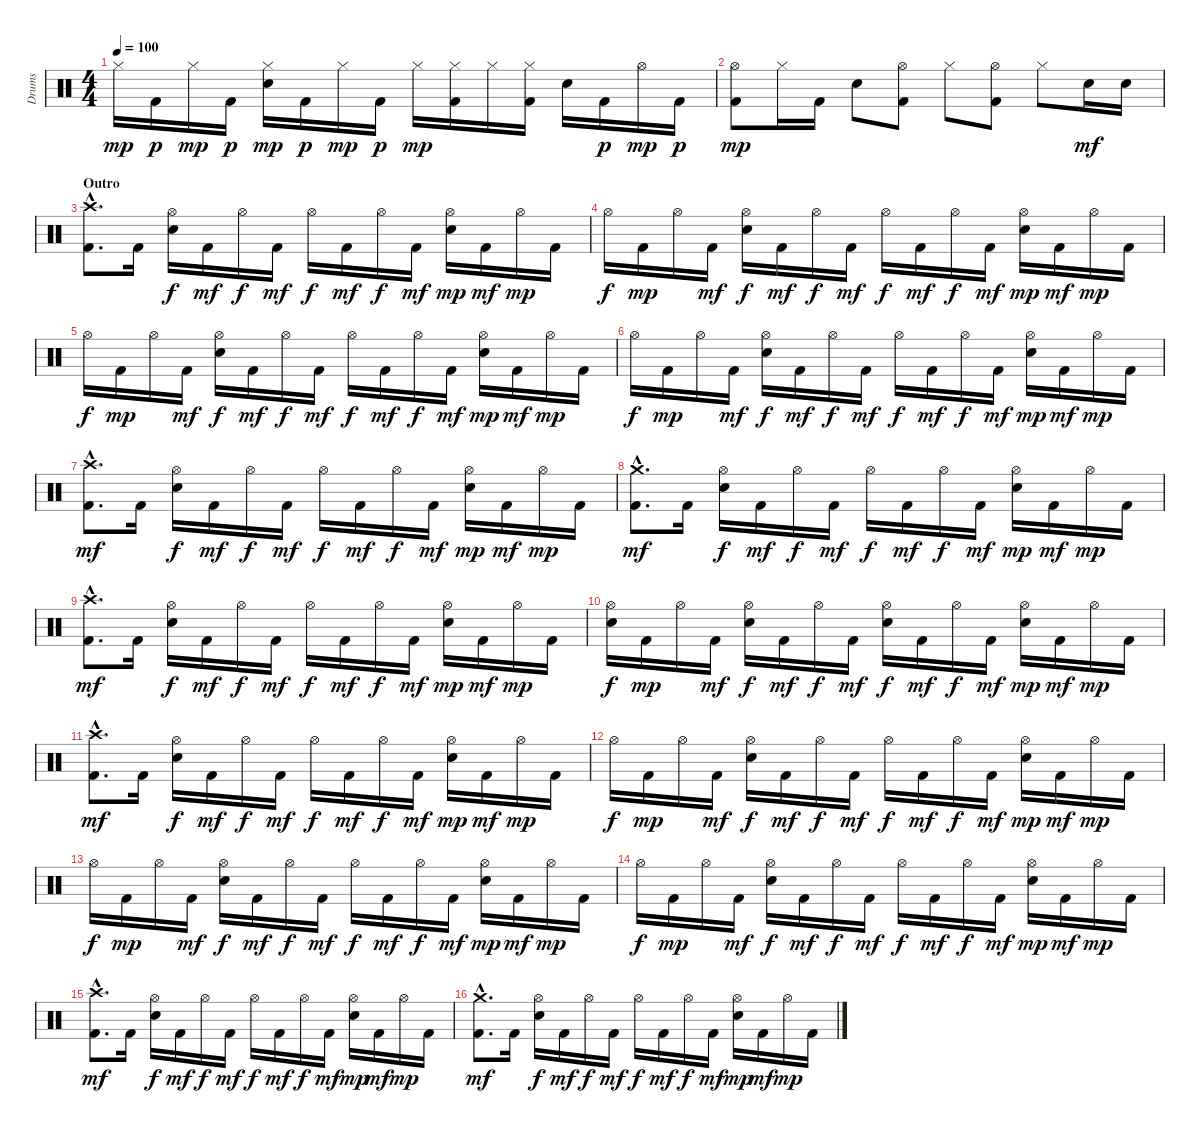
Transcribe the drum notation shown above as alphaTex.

\track ("Drums" "Drums") {instrument percussion}
\staff {score}
\articulation defaults
\ts (4 4)
\tempo 100
\clef neutral
\ks c "Hi-Hat (closed)".16{dy mp} "Kick (hit) 2".16{dy p} "Hi-Hat (closed)".16{dy mp} "Kick (hit) 2".16{dy p}
("Snare (hit) 2" "Hi-Hat (closed)").16{dy mp} "Kick (hit) 2".16{dy p} "Hi-Hat (closed)".16{dy mp} "Kick (hit) 2".16{dy p} "Hi-Hat (closed)".16{dy mp} ("Kick (hit) 2" "Hi-Hat (closed)").16 "Hi-Hat (closed)".16 ("Kick (hit) 2" "Hi-Hat (closed)").16 "Snare (hit) 2".16 "Kick (hit) 2".16{dy p} "Hi-Hat (open)".16{dy mp} "Kick (hit) 2".16{dy p} |
("Kick (hit) 2" "Hi-Hat (open)").8{dy mp} "Hi-Hat (closed)".16 "Kick (hit) 2".16 "Snare (hit) 2".8 ("Kick (hit) 2" "Hi-Hat (open)").8 "Hi-Hat (closed)".8 ("Kick (hit) 2" "Hi-Hat (open)").8 "Hi-Hat (closed)".8 "Snare (hit) 2".16{dy mf} "Snare (hit) 2".16 |
\section ("" "Outro")
("Kick (hit) 2"{hac} "Crash high (hit)"{hac}).8{d} "Kick (hit) 2".16 ("Snare (hit) 2" "Hi-Hat (open)").16{dy f} "Kick (hit) 2".16{dy mf} "Hi-Hat (open)".16{dy f} "Kick (hit) 2".16{dy mf} "Hi-Hat (open)".16{dy f} "Kick (hit) 2".16{dy mf} "Hi-Hat (open)".16{dy f} "Kick (hit) 2".16{dy mf} ("Snare (hit) 2" "Hi-Hat (open)").16{dy mp} "Kick (hit) 2".16{dy mf} "Hi-Hat (open)".16{dy mp} "Kick (hit) 2".16 |
"Hi-Hat (open)".16{dy f} "Kick (hit) 2".16{dy mp} "Hi-Hat (open)".16 "Kick (hit) 2".16{dy mf} ("Snare (hit) 2" "Hi-Hat (open)").16{dy f} "Kick (hit) 2".16{dy mf} "Hi-Hat (open)".16{dy f} "Kick (hit) 2".16{dy mf} "Hi-Hat (open)".16{dy f} "Kick (hit) 2".16{dy mf} "Hi-Hat (open)".16{dy f} "Kick (hit) 2".16{dy mf} ("Snare (hit) 2" "Hi-Hat (open)").16{dy mp} "Kick (hit) 2".16{dy mf} "Hi-Hat (open)".16{dy mp} "Kick (hit) 2".16 |
"Hi-Hat (open)".16{dy f} "Kick (hit) 2".16{dy mp} "Hi-Hat (open)".16 "Kick (hit) 2".16{dy mf} ("Snare (hit) 2" "Hi-Hat (open)").16{dy f} "Kick (hit) 2".16{dy mf} "Hi-Hat (open)".16{dy f} "Kick (hit) 2".16{dy mf} "Hi-Hat (open)".16{dy f} "Kick (hit) 2".16{dy mf} "Hi-Hat (open)".16{dy f} "Kick (hit) 2".16{dy mf} ("Snare (hit) 2" "Hi-Hat (open)").16{dy mp} "Kick (hit) 2".16{dy mf} "Hi-Hat (open)".16{dy mp} "Kick (hit) 2".16 |
"Hi-Hat (open)".16{dy f} "Kick (hit) 2".16{dy mp} "Hi-Hat (open)".16 "Kick (hit) 2".16{dy mf} ("Snare (hit) 2" "Hi-Hat (open)").16{dy f} "Kick (hit) 2".16{dy mf} "Hi-Hat (open)".16{dy f} "Kick (hit) 2".16{dy mf} "Hi-Hat (open)".16{dy f} "Kick (hit) 2".16{dy mf} "Hi-Hat (open)".16{dy f} "Kick (hit) 2".16{dy mf} ("Snare (hit) 2" "Hi-Hat (open)").16{dy mp} "Kick (hit) 2".16{dy mf} "Hi-Hat (open)".16{dy mp} "Kick (hit) 2".16 |
("Kick (hit) 2"{hac} "Crash high (hit)"{hac}).8{d dy mf} "Kick (hit) 2".16 ("Snare (hit) 2" "Hi-Hat (open)").16{dy f} "Kick (hit) 2".16{dy mf} "Hi-Hat (open)".16{dy f} "Kick (hit) 2".16{dy mf} "Hi-Hat (open)".16{dy f} "Kick (hit) 2".16{dy mf} "Hi-Hat (open)".16{dy f} "Kick (hit) 2".16{dy mf} ("Snare (hit) 2" "Hi-Hat (open)").16{dy mp} "Kick (hit) 2".16{dy mf} "Hi-Hat (open)".16{dy mp} "Kick (hit) 2".16 |
("Kick (hit) 2"{hac} "Crash medium (hit)"{hac}).8{d dy mf} "Kick (hit) 2".16 ("Snare (hit) 2" "Hi-Hat (open)").16{dy f} "Kick (hit) 2".16{dy mf} "Hi-Hat (open)".16{dy f} "Kick (hit) 2".16{dy mf} "Hi-Hat (open)".16{dy f} "Kick (hit) 2".16{dy mf} "Hi-Hat (open)".16{dy f} "Kick (hit) 2".16{dy mf} ("Snare (hit) 2" "Hi-Hat (open)").16{dy mp} "Kick (hit) 2".16{dy mf} "Hi-Hat (open)".16{dy mp} "Kick (hit) 2".16 |
("Kick (hit) 2"{hac} "Crash high (hit)"{hac}).8{d dy mf} "Kick (hit) 2".16 ("Snare (hit) 2" "Hi-Hat (open)").16{dy f} "Kick (hit) 2".16{dy mf} "Hi-Hat (open)".16{dy f} "Kick (hit) 2".16{dy mf} "Hi-Hat (open)".16{dy f} "Kick (hit) 2".16{dy mf} "Hi-Hat (open)".16{dy f} "Kick (hit) 2".16{dy mf} ("Snare (hit) 2" "Hi-Hat (open)").16{dy mp} "Kick (hit) 2".16{dy mf} "Hi-Hat (open)".16{dy mp} "Kick (hit) 2".16 |
("Snare (hit) 2" "Hi-Hat (open)").16{dy f} "Kick (hit) 2".16{dy mp} "Hi-Hat (open)".16 "Kick (hit) 2".16{dy mf} ("Snare (hit) 2" "Hi-Hat (open)").16{dy f} "Kick (hit) 2".16{dy mf} "Hi-Hat (open)".16{dy f} "Kick (hit) 2".16{dy mf} ("Snare (hit) 2" "Hi-Hat (open)").16{dy f} "Kick (hit) 2".16{dy mf} "Hi-Hat (open)".16{dy f} "Kick (hit) 2".16{dy mf} ("Snare (hit) 2" "Hi-Hat (open)").16{dy mp} "Kick (hit) 2".16{dy mf} "Hi-Hat (open)".16{dy mp} "Kick (hit) 2".16 |
("Kick (hit) 2"{hac} "Crash high (hit)"{hac}).8{d dy mf} "Kick (hit) 2".16 ("Snare (hit) 2" "Hi-Hat (open)").16{dy f} "Kick (hit) 2".16{dy mf} "Hi-Hat (open)".16{dy f} "Kick (hit) 2".16{dy mf} "Hi-Hat (open)".16{dy f} "Kick (hit) 2".16{dy mf} "Hi-Hat (open)".16{dy f} "Kick (hit) 2".16{dy mf} ("Snare (hit) 2" "Hi-Hat (open)").16{dy mp} "Kick (hit) 2".16{dy mf} "Hi-Hat (open)".16{dy mp} "Kick (hit) 2".16 |
"Hi-Hat (open)".16{dy f} "Kick (hit) 2".16{dy mp} "Hi-Hat (open)".16 "Kick (hit) 2".16{dy mf} ("Snare (hit) 2" "Hi-Hat (open)").16{dy f} "Kick (hit) 2".16{dy mf} "Hi-Hat (open)".16{dy f} "Kick (hit) 2".16{dy mf} "Hi-Hat (open)".16{dy f} "Kick (hit) 2".16{dy mf} "Hi-Hat (open)".16{dy f} "Kick (hit) 2".16{dy mf} ("Snare (hit) 2" "Hi-Hat (open)").16{dy mp} "Kick (hit) 2".16{dy mf} "Hi-Hat (open)".16{dy mp} "Kick (hit) 2".16 |
"Hi-Hat (open)".16{dy f} "Kick (hit) 2".16{dy mp} "Hi-Hat (open)".16 "Kick (hit) 2".16{dy mf} ("Snare (hit) 2" "Hi-Hat (open)").16{dy f} "Kick (hit) 2".16{dy mf} "Hi-Hat (open)".16{dy f} "Kick (hit) 2".16{dy mf} "Hi-Hat (open)".16{dy f} "Kick (hit) 2".16{dy mf} "Hi-Hat (open)".16{dy f} "Kick (hit) 2".16{dy mf} ("Snare (hit) 2" "Hi-Hat (open)").16{dy mp} "Kick (hit) 2".16{dy mf} "Hi-Hat (open)".16{dy mp} "Kick (hit) 2".16 |
"Hi-Hat (open)".16{dy f volume 9} "Kick (hit) 2".16{dy mp} "Hi-Hat (open)".16 "Kick (hit) 2".16{dy mf} ("Snare (hit) 2" "Hi-Hat (open)").16{dy f} "Kick (hit) 2".16{dy mf} "Hi-Hat (open)".16{dy f} "Kick (hit) 2".16{dy mf} "Hi-Hat (open)".16{dy f} "Kick (hit) 2".16{dy mf} "Hi-Hat (open)".16{dy f} "Kick (hit) 2".16{dy mf} ("Snare (hit) 2" "Hi-Hat (open)").16{dy mp} "Kick (hit) 2".16{dy mf} "Hi-Hat (open)".16{dy mp} "Kick (hit) 2".16 |
("Kick (hit) 2"{hac} "Crash high (hit)"{hac}).8{d dy mf} "Kick (hit) 2".16 ("Snare (hit) 2" "Hi-Hat (open)").16{dy f} "Kick (hit) 2".16{dy mf} "Hi-Hat (open)".16{dy f} "Kick (hit) 2".16{dy mf} "Hi-Hat (open)".16{dy f} "Kick (hit) 2".16{dy mf} "Hi-Hat (open)".16{dy f} "Kick (hit) 2".16{dy mf} ("Snare (hit) 2" "Hi-Hat (open)").16{dy mp} "Kick (hit) 2".16{dy mf} "Hi-Hat (open)".16{dy mp} "Kick (hit) 2".16 |
("Kick (hit) 2"{hac} "Crash medium (hit)"{hac}).8{d dy mf volume 5} "Kick (hit) 2".16 ("Snare (hit) 2" "Hi-Hat (open)").16{dy f} "Kick (hit) 2".16{dy mf} "Hi-Hat (open)".16{dy f} "Kick (hit) 2".16{dy mf} "Hi-Hat (open)".16{dy f} "Kick (hit) 2".16{dy mf} "Hi-Hat (open)".16{dy f} "Kick (hit) 2".16{dy mf} ("Snare (hit) 2" "Hi-Hat (open)").16{dy mp} "Kick (hit) 2".16{dy mf} "Hi-Hat (open)".16{dy mp} "Kick (hit) 2".16
